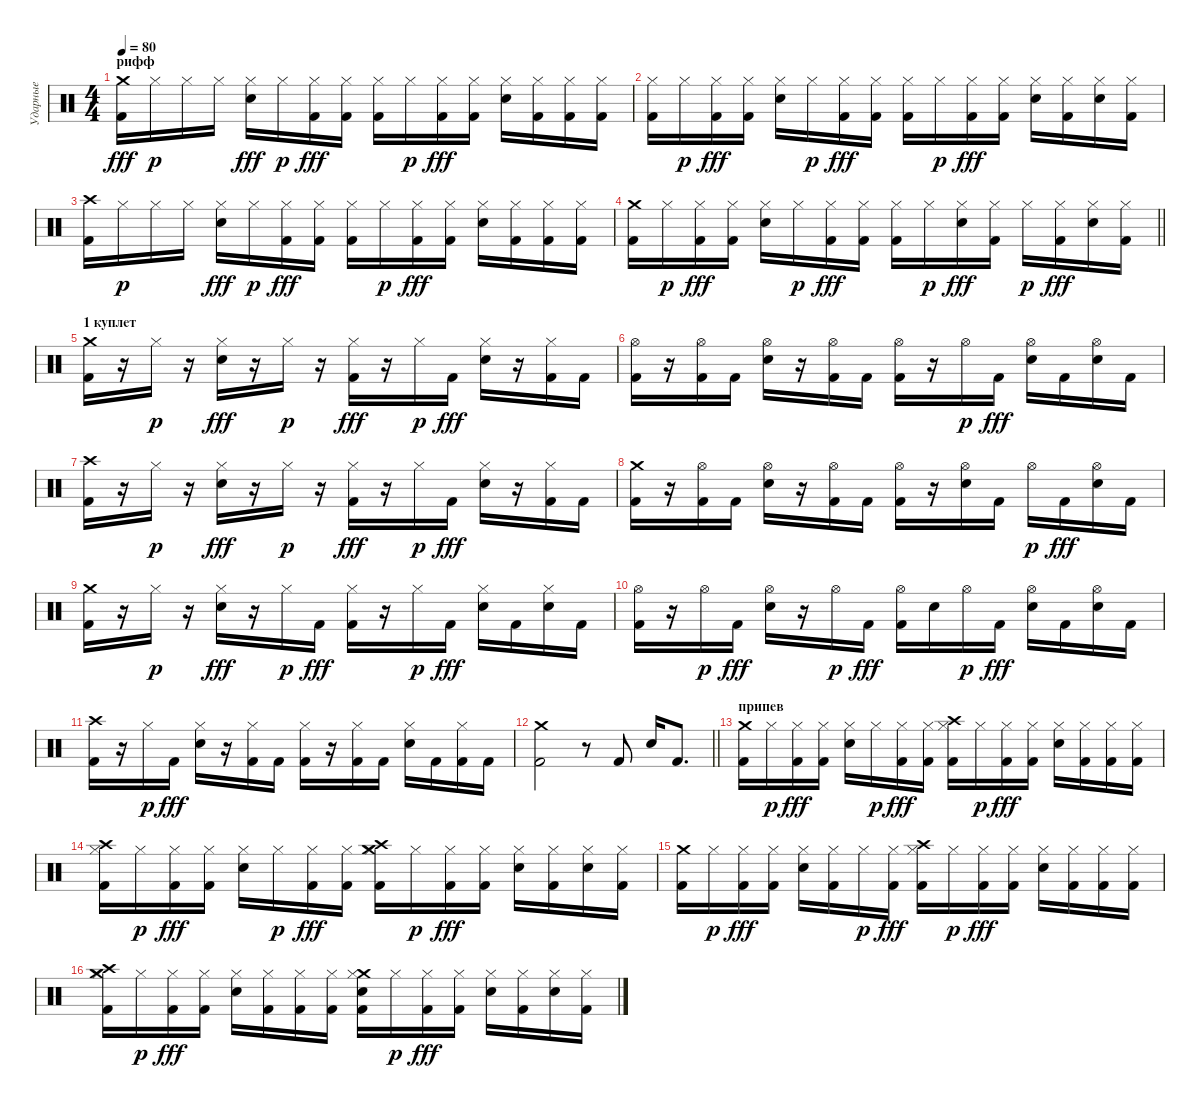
\track ("Ударные" "Ударные") {instrument percussion}
\staff {score}
\articulation defaults
\ts (4 4)
\section ("" "рифф")
\tempo 80
\clef neutral
\ks c
("Crash medium (hit)" "Kick (hit) 2").16{dy fff} "Hi-Hat (closed)".16{dy p} "Hi-Hat (closed)".16 "Hi-Hat (closed)".16 ("Hi-Hat (closed)" "Snare (hit) 2").16{dy fff} "Hi-Hat (closed)".16{dy p} ("Hi-Hat (closed)" "Kick (hit) 2").16{dy fff} ("Hi-Hat (closed)" "Kick (hit) 2").16 ("Hi-Hat (closed)" "Kick (hit) 2").16 "Hi-Hat (closed)".16{dy p} ("Hi-Hat (closed)" "Kick (hit) 2").16{dy fff} ("Hi-Hat (closed)" "Kick (hit) 2").16 ("Hi-Hat (closed)" "Snare (hit) 2").16 ("Hi-Hat (closed)" "Kick (hit) 2").16 ("Hi-Hat (closed)" "Kick (hit) 2").16 ("Hi-Hat (closed)" "Kick (hit) 2").16 |
("Hi-Hat (closed)" "Kick (hit) 2").16 "Hi-Hat (closed)".16{dy p} ("Hi-Hat (closed)" "Kick (hit) 2").16{dy fff} ("Hi-Hat (closed)" "Kick (hit) 2").16 ("Hi-Hat (closed)" "Snare (hit) 2").16 "Hi-Hat (closed)".16{dy p} ("Hi-Hat (closed)" "Kick (hit) 2").16{dy fff} ("Hi-Hat (closed)" "Kick (hit) 2").16 ("Hi-Hat (closed)" "Kick (hit) 2").16 "Hi-Hat (closed)".16{dy p} ("Hi-Hat (closed)" "Kick (hit) 2").16{dy fff} ("Hi-Hat (closed)" "Kick (hit) 2").16 ("Hi-Hat (closed)" "Snare (hit) 2").16 ("Hi-Hat (closed)" "Kick (hit) 2").16 ("Hi-Hat (closed)" "Snare (hit) 2").16 ("Hi-Hat (closed)" "Kick (hit) 2").16 |
("Crash high (hit)" "Kick (hit) 2").16 "Hi-Hat (closed)".16{dy p} "Hi-Hat (closed)".16 "Hi-Hat (closed)".16 ("Hi-Hat (closed)" "Snare (hit) 2").16{dy fff} "Hi-Hat (closed)".16{dy p} ("Hi-Hat (closed)" "Kick (hit) 2").16{dy fff} ("Hi-Hat (closed)" "Kick (hit) 2").16 ("Hi-Hat (closed)" "Kick (hit) 2").16 "Hi-Hat (closed)".16{dy p} ("Hi-Hat (closed)" "Kick (hit) 2").16{dy fff} ("Hi-Hat (closed)" "Kick (hit) 2").16 ("Hi-Hat (closed)" "Snare (hit) 2").16 ("Hi-Hat (closed)" "Kick (hit) 2").16 ("Hi-Hat (closed)" "Kick (hit) 2").16 ("Hi-Hat (closed)" "Kick (hit) 2").16 |
\barLineRight lightlight
("Crash medium (hit)" "Kick (hit) 2").16 "Hi-Hat (closed)".16{dy p} ("Hi-Hat (closed)" "Kick (hit) 2").16{dy fff} ("Hi-Hat (closed)" "Kick (hit) 2").16 ("Hi-Hat (closed)" "Snare (hit) 2").16 "Hi-Hat (closed)".16{dy p} ("Hi-Hat (closed)" "Kick (hit) 2").16{dy fff} ("Hi-Hat (closed)" "Kick (hit) 2").16 ("Hi-Hat (closed)" "Kick (hit) 2").16 "Hi-Hat (closed)".16{dy p} ("Hi-Hat (closed)" "Snare (hit) 2").16{dy fff} ("Hi-Hat (closed)" "Kick (hit) 2").16 "Hi-Hat (closed)".16{dy p} ("Hi-Hat (closed)" "Kick (hit) 2").16{dy fff} ("Hi-Hat (closed)" "Snare (hit) 2").16 ("Hi-Hat (closed)" "Kick (hit) 2").16 |
\section ("" "1 куплет")
("Crash medium (hit)" "Kick (hit) 2").16 r.16 "Hi-Hat (closed)".16{dy p} r.16 ("Hi-Hat (closed)" "Snare (hit) 2").16{dy fff} r.16 "Hi-Hat (closed)".16{dy p} r.16 ("Hi-Hat (closed)" "Kick (hit) 2").16{dy fff} r.16 "Hi-Hat (closed)".16{dy p} "Kick (hit) 2".16{dy fff} ("Hi-Hat (closed)" "Snare (hit) 2").16 r.16 ("Hi-Hat (closed)" "Kick (hit) 2").16 "Kick (hit) 2".16 |
("Hi-Hat (open)" "Kick (hit) 2").16 r.16 ("Hi-Hat (open)" "Kick (hit) 2").16 "Kick (hit) 2".16 ("Hi-Hat (open)" "Snare (hit) 2").16 r.16 ("Hi-Hat (open)" "Kick (hit) 2").16 "Kick (hit) 2".16 ("Hi-Hat (open)" "Kick (hit) 2").16 r.16 "Hi-Hat (open)".16{dy p} "Kick (hit) 2".16{dy fff} ("Hi-Hat (open)" "Snare (hit) 2").16 "Kick (hit) 2".16 ("Hi-Hat (open)" "Snare (hit) 2").16 "Kick (hit) 2".16 |
("Crash high (hit)" "Kick (hit) 2").16 r.16 "Hi-Hat (closed)".16{dy p} r.16 ("Hi-Hat (closed)" "Snare (hit) 2").16{dy fff} r.16 "Hi-Hat (closed)".16{dy p} r.16 ("Hi-Hat (closed)" "Kick (hit) 2").16{dy fff} r.16 "Hi-Hat (closed)".16{dy p} "Kick (hit) 2".16{dy fff} ("Hi-Hat (closed)" "Snare (hit) 2").16 r.16 ("Hi-Hat (closed)" "Kick (hit) 2").16 "Kick (hit) 2".16 |
("Crash medium (hit)" "Kick (hit) 2").16 r.16 ("Hi-Hat (open)" "Kick (hit) 2").16 "Kick (hit) 2".16 ("Hi-Hat (open)" "Snare (hit) 2").16 r.16 ("Hi-Hat (open)" "Kick (hit) 2").16 "Kick (hit) 2".16 ("Hi-Hat (open)" "Kick (hit) 2").16 r.16 ("Hi-Hat (open)" "Snare (hit) 2").16 "Kick (hit) 2".16 "Hi-Hat (open)".16{dy p} "Kick (hit) 2".16{dy fff} ("Hi-Hat (open)" "Snare (hit) 2").16 "Kick (hit) 2".16 |
("Crash medium (hit)" "Kick (hit) 2").16 r.16 "Hi-Hat (closed)".16{dy p} r.16 ("Hi-Hat (closed)" "Snare (hit) 2").16{dy fff} r.16 "Hi-Hat (closed)".16{dy p} "Kick (hit) 2".16{dy fff} ("Hi-Hat (closed)" "Kick (hit) 2").16 r.16 "Hi-Hat (closed)".16{dy p} "Kick (hit) 2".16{dy fff} ("Hi-Hat (closed)" "Snare (hit) 2").16 "Kick (hit) 2".16 ("Hi-Hat (closed)" "Snare (hit) 2").16 "Kick (hit) 2".16 |
("Hi-Hat (open)" "Kick (hit) 2").16 r.16 "Hi-Hat (open)".16{dy p} "Kick (hit) 2".16{dy fff} ("Hi-Hat (open)" "Snare (hit) 2").16 r.16 "Hi-Hat (open)".16{dy p} "Kick (hit) 2".16{dy fff} ("Hi-Hat (open)" "Kick (hit) 2").16 "Snare (hit) 2".16 "Hi-Hat (open)".16{dy p} "Kick (hit) 2".16{dy fff} ("Hi-Hat (open)" "Snare (hit) 2").16 "Kick (hit) 2".16 ("Hi-Hat (open)" "Snare (hit) 2").16 "Kick (hit) 2".16 |
("Crash high (hit)" "Kick (hit) 2").16 r.16 "Hi-Hat (closed)".16{dy p} "Kick (hit) 2".16{dy fff} ("Hi-Hat (closed)" "Snare (hit) 2").16 r.16 ("Hi-Hat (closed)" "Kick (hit) 2").16 "Kick (hit) 2".16 ("Hi-Hat (closed)" "Kick (hit) 2").16 r.16 ("Hi-Hat (closed)" "Kick (hit) 2").16 "Kick (hit) 2".16 ("Hi-Hat (closed)" "Snare (hit) 2").16 "Kick (hit) 2".16 ("Hi-Hat (closed)" "Kick (hit) 2").16 "Kick (hit) 2".16 |
\barLineRight lightlight
("Crash medium (hit)" "Kick (hit) 2").2 r.8 "Kick (hit) 2".8 "Snare (hit) 2".16 "Kick (hit) 2".8{d} |
\section ("" "припев")
("Crash medium (hit)" "Kick (hit) 2").16 "Hi-Hat (closed)".16{dy p} ("Hi-Hat (closed)" "Kick (hit) 2").16{dy fff} ("Hi-Hat (closed)" "Kick (hit) 2").16 ("Hi-Hat (closed)" "Snare (hit) 2").16 "Hi-Hat (closed)".16{dy p} ("Hi-Hat (closed)" "Kick (hit) 2").16{dy fff} ("Hi-Hat (closed)" "Kick (hit) 2").16 ("Crash high (hit)" "Hi-Hat (closed)" "Kick (hit) 2").16 "Hi-Hat (closed)".16{dy p} ("Hi-Hat (closed)" "Kick (hit) 2").16{dy fff} ("Hi-Hat (closed)" "Kick (hit) 2").16 ("Hi-Hat (closed)" "Snare (hit) 2").16 ("Hi-Hat (closed)" "Kick (hit) 2").16 ("Hi-Hat (closed)" "Kick (hit) 2").16 ("Hi-Hat (closed)" "Kick (hit) 2").16 |
("Crash high (hit)" "Hi-Hat (closed)" "Kick (hit) 2").16 "Hi-Hat (closed)".16{dy p} ("Hi-Hat (closed)" "Kick (hit) 2").16{dy fff} ("Hi-Hat (closed)" "Kick (hit) 2").16 ("Hi-Hat (closed)" "Snare (hit) 2").16 "Hi-Hat (closed)".16{dy p} ("Hi-Hat (closed)" "Kick (hit) 2").16{dy fff} ("Hi-Hat (closed)" "Kick (hit) 2").16 ("Crash medium (hit)" "Crash high (hit)" "Hi-Hat (closed)" "Kick (hit) 2").16 "Hi-Hat (closed)".16{dy p} ("Hi-Hat (closed)" "Kick (hit) 2").16{dy fff} ("Hi-Hat (closed)" "Kick (hit) 2").16 ("Hi-Hat (closed)" "Snare (hit) 2").16 ("Hi-Hat (closed)" "Kick (hit) 2").16 ("Hi-Hat (closed)" "Snare (hit) 2").16 ("Hi-Hat (closed)" "Kick (hit) 2").16 |
("Crash medium (hit)" "Kick (hit) 2").16 "Hi-Hat (closed)".16{dy p} ("Hi-Hat (closed)" "Kick (hit) 2").16{dy fff} ("Hi-Hat (closed)" "Kick (hit) 2").16 ("Hi-Hat (closed)" "Snare (hit) 2").16 ("Hi-Hat (closed)" "Kick (hit) 2").16 "Hi-Hat (closed)".16{dy p} ("Hi-Hat (closed)" "Kick (hit) 2").16{dy fff} ("Crash high (hit)" "Hi-Hat (closed)" "Kick (hit) 2").16 "Hi-Hat (closed)".16{dy p} ("Hi-Hat (closed)" "Kick (hit) 2").16{dy fff} ("Hi-Hat (closed)" "Kick (hit) 2").16 ("Hi-Hat (closed)" "Snare (hit) 2").16 ("Hi-Hat (closed)" "Kick (hit) 2").16 ("Hi-Hat (closed)" "Kick (hit) 2").16 ("Hi-Hat (closed)" "Kick (hit) 2").16 |
("Crash high (hit)" "Crash medium (hit)" "Hi-Hat (closed)" "Kick (hit) 2").16 "Hi-Hat (closed)".16{dy p} ("Hi-Hat (closed)" "Kick (hit) 2").16{dy fff} ("Hi-Hat (closed)" "Kick (hit) 2").16 ("Hi-Hat (closed)" "Snare (hit) 2").16 ("Hi-Hat (closed)" "Kick (hit) 2").16 ("Hi-Hat (closed)" "Kick (hit) 2").16 ("Hi-Hat (closed)" "Kick (hit) 2").16 ("Crash medium (hit)" "Hi-Hat (closed)" "Snare (hit) 2" "Kick (hit) 2").16 "Hi-Hat (closed)".16{dy p} ("Hi-Hat (closed)" "Kick (hit) 2").16{dy fff} ("Hi-Hat (closed)" "Kick (hit) 2").16 ("Hi-Hat (closed)" "Snare (hit) 2").16 ("Hi-Hat (closed)" "Kick (hit) 2").16 ("Hi-Hat (closed)" "Snare (hit) 2").16 ("Hi-Hat (closed)" "Kick (hit) 2").16
